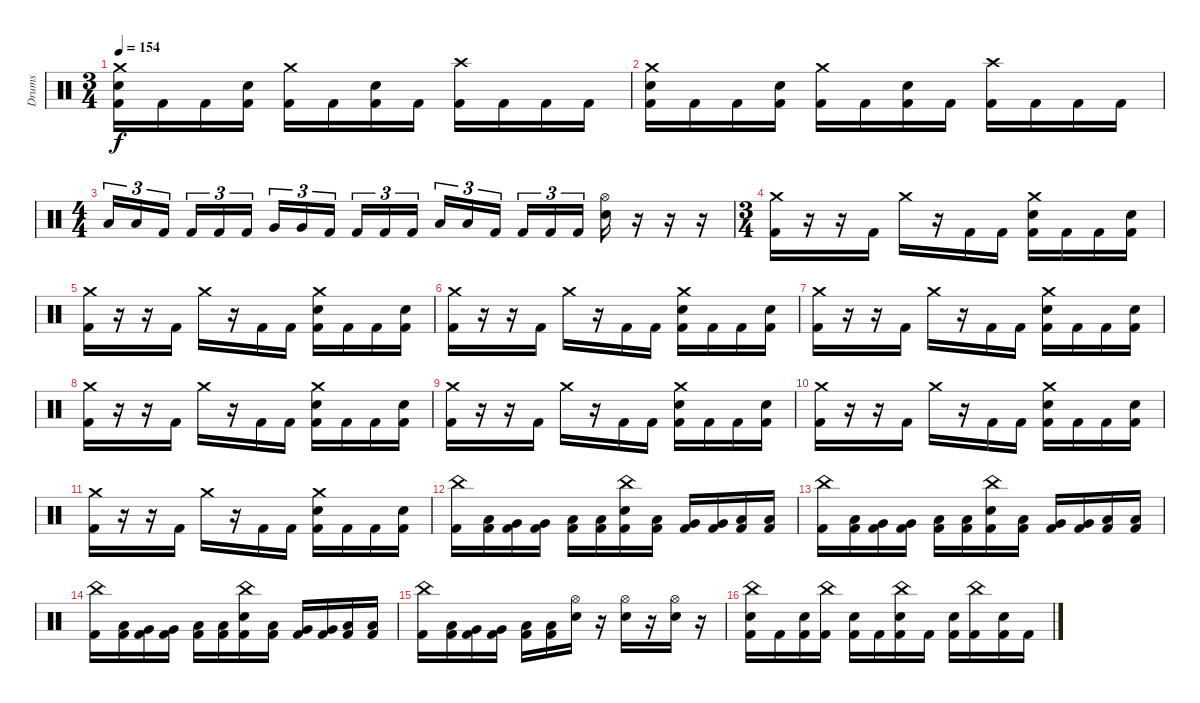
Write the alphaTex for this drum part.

\track ("Drums" "Drums") {instrument percussion}
\staff {score}
\articulation defaults
\ts (3 4)
\tempo 154
\clef neutral
\ks c
("Crash medium (hit)" "Electric Snare (hit)" "Kick (hit) 2").16{dy f} "Kick (hit) 2".16 "Kick (hit) 2".16 ("Electric Snare (hit)" "Kick (hit) 2").16 ("Crash medium (hit)" "Kick (hit) 2").16 "Kick (hit) 2".16 ("Electric Snare (hit)" "Kick (hit) 2").16 "Kick (hit) 2".16 ("Crash high (hit)" "Kick (hit) 2").16 "Kick (hit) 2".16 "Kick (hit) 2".16 "Kick (hit) 2".16 |
("Crash medium (hit)" "Electric Snare (hit)" "Kick (hit) 2").16 "Kick (hit) 2".16 "Kick (hit) 2".16 ("Electric Snare (hit)" "Kick (hit) 2").16 ("Crash medium (hit)" "Kick (hit) 2").16 "Kick (hit) 2".16 ("Electric Snare (hit)" "Kick (hit) 2").16 "Kick (hit) 2".16 ("Crash high (hit)" "Kick (hit) 2").16 "Kick (hit) 2".16 "Kick (hit) 2".16 "Kick (hit) 2".16 |
\ts (4 4)
"Low Tom (hit)".16{tu (3 2)} "Low Tom (hit)".16{tu (3 2)} "Kick (hit) 2".16{tu (3 2)} "Kick (hit) 2".16{tu (3 2)} "Kick (hit) 2".16{tu (3 2)} "Kick (hit) 2".16{tu (3 2)} "Very Low Tom (hit)".16{tu (3 2)} "Very Low Tom (hit)".16{tu (3 2)} "Kick (hit) 2".16{tu (3 2)} "Kick (hit) 2".16{tu (3 2)} "Kick (hit) 2".16{tu (3 2)} "Kick (hit) 2".16{tu (3 2)} "Low Floor Tom (hit)".16{tu (3 2)} "Low Floor Tom (hit)".16{tu (3 2)} "Kick (hit) 2".16{tu (3 2)} "Kick (hit) 2".16{tu (3 2)} "Kick (hit) 2".16{tu (3 2)} "Kick (hit) 2".16{tu (3 2)} ("Hi-Hat (open)" "Electric Snare (hit)").16 r.16 r.16 r.16 |
\ts (3 4)
("Crash medium (hit)" "Kick (hit) 2").16 r.16 r.16 "Kick (hit) 2".16 "Crash medium (hit)".16 r.16 "Kick (hit) 2".16 "Kick (hit) 2".16 ("Crash medium (hit)" "Electric Snare (hit)" "Kick (hit) 2").16 "Kick (hit) 2".16 "Kick (hit) 2".16 ("Electric Snare (hit)" "Kick (hit) 2").16 |
("Crash medium (hit)" "Kick (hit) 2").16 r.16 r.16 "Kick (hit) 2".16 "Crash medium (hit)".16 r.16 "Kick (hit) 2".16 "Kick (hit) 2".16 ("Crash medium (hit)" "Electric Snare (hit)" "Kick (hit) 2").16 "Kick (hit) 2".16 "Kick (hit) 2".16 ("Electric Snare (hit)" "Kick (hit) 2").16 |
("Crash medium (hit)" "Kick (hit) 2").16 r.16 r.16 "Kick (hit) 2".16 "Crash medium (hit)".16 r.16 "Kick (hit) 2".16 "Kick (hit) 2".16 ("Crash medium (hit)" "Electric Snare (hit)" "Kick (hit) 2").16 "Kick (hit) 2".16 "Kick (hit) 2".16 ("Electric Snare (hit)" "Kick (hit) 2").16 |
("Crash medium (hit)" "Kick (hit) 2").16 r.16 r.16 "Kick (hit) 2".16 "Crash medium (hit)".16 r.16 "Kick (hit) 2".16 "Kick (hit) 2".16 ("Crash medium (hit)" "Electric Snare (hit)" "Kick (hit) 2").16 "Kick (hit) 2".16 "Kick (hit) 2".16 ("Electric Snare (hit)" "Kick (hit) 2").16 |
("Crash medium (hit)" "Kick (hit) 2").16 r.16 r.16 "Kick (hit) 2".16 "Crash medium (hit)".16 r.16 "Kick (hit) 2".16 "Kick (hit) 2".16 ("Crash medium (hit)" "Electric Snare (hit)" "Kick (hit) 2").16 "Kick (hit) 2".16 "Kick (hit) 2".16 ("Electric Snare (hit)" "Kick (hit) 2").16 |
("Crash medium (hit)" "Kick (hit) 2").16 r.16 r.16 "Kick (hit) 2".16 "Crash medium (hit)".16 r.16 "Kick (hit) 2".16 "Kick (hit) 2".16 ("Crash medium (hit)" "Electric Snare (hit)" "Kick (hit) 2").16 "Kick (hit) 2".16 "Kick (hit) 2".16 ("Electric Snare (hit)" "Kick (hit) 2").16 |
("Crash medium (hit)" "Kick (hit) 2").16 r.16 r.16 "Kick (hit) 2".16 "Crash medium (hit)".16 r.16 "Kick (hit) 2".16 "Kick (hit) 2".16 ("Crash medium (hit)" "Electric Snare (hit)" "Kick (hit) 2").16 "Kick (hit) 2".16 "Kick (hit) 2".16 ("Electric Snare (hit)" "Kick (hit) 2").16 |
("Crash medium (hit)" "Kick (hit) 2").16 r.16 r.16 "Kick (hit) 2".16 "Crash medium (hit)".16 r.16 "Kick (hit) 2".16 "Kick (hit) 2".16 ("Crash medium (hit)" "Electric Snare (hit)" "Kick (hit) 2").16 "Kick (hit) 2".16 "Kick (hit) 2".16 ("Electric Snare (hit)" "Kick (hit) 2").16 |
("China (hit)" "Kick (hit) 2").16 ("Low Tom (hit)" "Kick (hit) 2").16 ("Very Low Tom (hit)" "Kick (hit) 2").16 ("Very Low Tom (hit)" "Kick (hit) 2").16 ("Low Floor Tom (hit)" "Kick (hit) 2").16 ("Low Floor Tom (hit)" "Kick (hit) 2").16 ("China (hit)" "Electric Snare (hit)" "Kick (hit) 2").16 ("Low Tom (hit)" "Kick (hit) 2").16 ("Very Low Tom (hit)" "Kick (hit) 2").16 ("Very Low Tom (hit)" "Kick (hit) 2").16 ("Low Floor Tom (hit)" "Kick (hit) 2").16 ("Low Floor Tom (hit)" "Kick (hit) 2").16 |
("China (hit)" "Kick (hit) 2").16 ("Low Tom (hit)" "Kick (hit) 2").16 ("Very Low Tom (hit)" "Kick (hit) 2").16 ("Very Low Tom (hit)" "Kick (hit) 2").16 ("Low Floor Tom (hit)" "Kick (hit) 2").16 ("Low Floor Tom (hit)" "Kick (hit) 2").16 ("China (hit)" "Electric Snare (hit)" "Kick (hit) 2").16 ("Low Tom (hit)" "Kick (hit) 2").16 ("Very Low Tom (hit)" "Kick (hit) 2").16 ("Very Low Tom (hit)" "Kick (hit) 2").16 ("Low Floor Tom (hit)" "Kick (hit) 2").16 ("Low Floor Tom (hit)" "Kick (hit) 2").16 |
("China (hit)" "Kick (hit) 2").16 ("Low Tom (hit)" "Kick (hit) 2").16 ("Very Low Tom (hit)" "Kick (hit) 2").16 ("Very Low Tom (hit)" "Kick (hit) 2").16 ("Low Floor Tom (hit)" "Kick (hit) 2").16 ("Low Floor Tom (hit)" "Kick (hit) 2").16 ("China (hit)" "Electric Snare (hit)" "Kick (hit) 2").16 ("Low Tom (hit)" "Kick (hit) 2").16 ("Very Low Tom (hit)" "Kick (hit) 2").16 ("Very Low Tom (hit)" "Kick (hit) 2").16 ("Low Floor Tom (hit)" "Kick (hit) 2").16 ("Low Floor Tom (hit)" "Kick (hit) 2").16 |
("China (hit)" "Kick (hit) 2").16 ("Low Tom (hit)" "Kick (hit) 2").16 ("Very Low Tom (hit)" "Kick (hit) 2").16 ("Very Low Tom (hit)" "Kick (hit) 2").16 ("Low Floor Tom (hit)" "Kick (hit) 2").16 ("Low Floor Tom (hit)" "Kick (hit) 2").16 ("Hi-Hat (open)" "Electric Snare (hit)").16 r.16 ("Hi-Hat (open)" "Electric Snare (hit)").16 r.16 ("Hi-Hat (open)" "Electric Snare (hit)").16 r.16 |
("China (hit)" "Electric Snare (hit)" "Kick (hit) 2").16 "Kick (hit) 2".16 ("Electric Snare (hit)" "Kick (hit) 2").16 ("China (hit)" "Kick (hit) 2").16 ("Electric Snare (hit)" "Kick (hit) 2").16 "Kick (hit) 2".16 ("China (hit)" "Electric Snare (hit)" "Kick (hit) 2").16 "Kick (hit) 2".16 ("Electric Snare (hit)" "Kick (hit) 2").16 ("China (hit)" "Kick (hit) 2").16 ("Electric Snare (hit)" "Kick (hit) 2").16 "Kick (hit) 2".16
